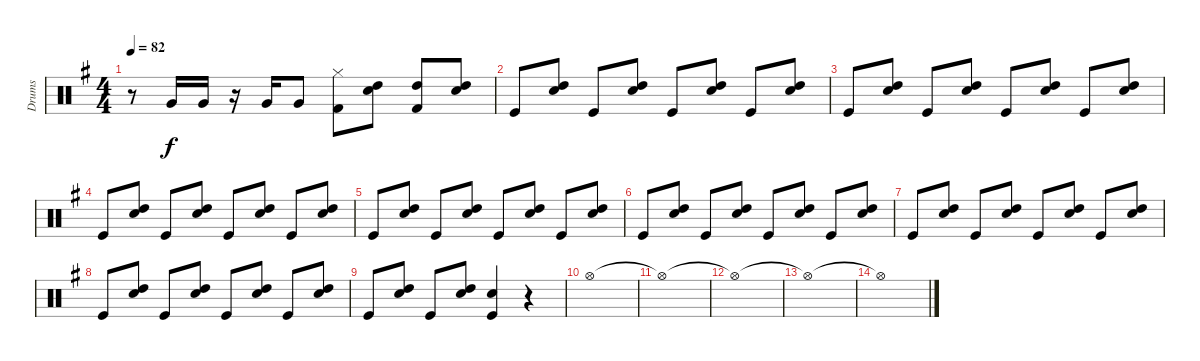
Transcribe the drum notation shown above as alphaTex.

\track ("Drums" "Drums") {instrument percussion}
\staff {score}
\articulation defaults
\ts (4 4)
\tempo 82
\clef neutral
\ks g
r.8{dy f} "Very Low Tom (hit)".16 "Very Low Tom (hit)".16 r.16 "Very Low Tom (hit)".16 "Very Low Tom (hit)".8 ("Hi-Hat (closed)" "Kick (hit) 2").8 ("High Tom (hit)" "Snare (hit) 2").8 ("High Tom (hit)" "Kick (hit) 2").8 ("High Tom (hit)" "Snare (hit) 2").8 |
"Kick (hit)".8 ("Snare (hit) 2" "High Tom (hit)").8 "Kick (hit)".8 ("Snare (hit) 2" "High Tom (hit)").8 "Kick (hit)".8 ("Snare (hit) 2" "High Tom (hit)").8 "Kick (hit)".8 ("Snare (hit) 2" "High Tom (hit)").8 |
"Kick (hit)".8 ("Snare (hit) 2" "High Tom (hit)").8 "Kick (hit)".8 ("Snare (hit) 2" "High Tom (hit)").8 "Kick (hit)".8 ("Snare (hit) 2" "High Tom (hit)").8 "Kick (hit)".8 ("Snare (hit) 2" "High Tom (hit)").8 |
"Kick (hit)".8 ("Snare (hit) 2" "High Tom (hit)").8 "Kick (hit)".8 ("Snare (hit) 2" "High Tom (hit)").8 "Kick (hit)".8 ("Snare (hit) 2" "High Tom (hit)").8 "Kick (hit)".8 ("Snare (hit) 2" "High Tom (hit)").8 |
"Kick (hit)".8 ("Snare (hit) 2" "High Tom (hit)").8 "Kick (hit)".8 ("Snare (hit) 2" "High Tom (hit)").8 "Kick (hit)".8 ("Snare (hit) 2" "High Tom (hit)").8 "Kick (hit)".8 ("Snare (hit) 2" "High Tom (hit)").8 |
"Kick (hit)".8 ("Snare (hit) 2" "High Tom (hit)").8 "Kick (hit)".8 ("Snare (hit) 2" "High Tom (hit)").8 "Kick (hit)".8 ("Snare (hit) 2" "High Tom (hit)").8 "Kick (hit)".8 ("Snare (hit) 2" "High Tom (hit)").8 |
"Kick (hit)".8 ("Snare (hit) 2" "High Tom (hit)").8 "Kick (hit)".8 ("Snare (hit) 2" "High Tom (hit)").8 "Kick (hit)".8 ("Snare (hit) 2" "High Tom (hit)").8 "Kick (hit)".8 ("Snare (hit) 2" "High Tom (hit)").8 |
"Kick (hit)".8 ("Snare (hit) 2" "High Tom (hit)").8 "Kick (hit)".8 ("Snare (hit) 2" "High Tom (hit)").8 "Kick (hit)".8 ("Snare (hit) 2" "High Tom (hit)").8 "Kick (hit)".8 ("Snare (hit) 2" "High Tom (hit)").8 |
"Kick (hit)".8 ("Snare (hit) 2" "High Tom (hit)").8 "Kick (hit)".8 ("Snare (hit) 2" "High Tom (hit)").8 ("Snare (hit) 2" "Kick (hit)").4 r.4 |
"Hi-Hat (open)".1 |
"Hi-Hat (open)"{t}.1 |
"Hi-Hat (open)"{t}.1 |
"Hi-Hat (open)"{t}.1 |
"Hi-Hat (open)"{t}.1
